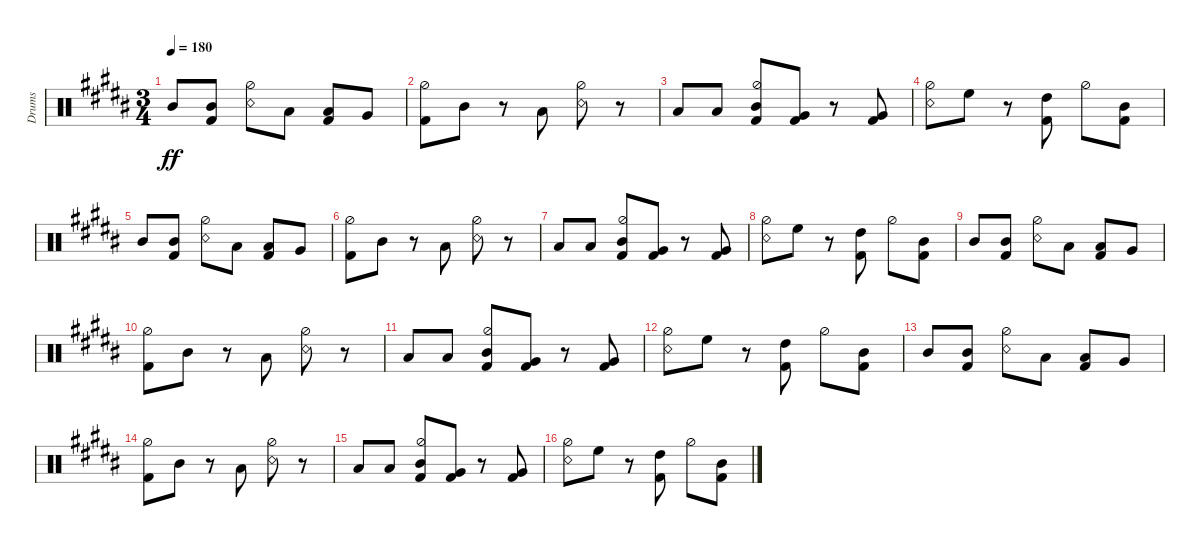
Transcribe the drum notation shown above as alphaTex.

\bracketExtendMode groupsimilarinstruments
\otherSystemsTrackNameOrientation horizontal
\track ("Drumkit" "Drums") {instrument percussion}
\staff {score}
\articulation defaults
\ts (3 4)
\tempo 180
\clef neutral
\ks b "Mid Tom (hit)"{acc bb}.8{dy ff beam Up}
("Kick (hit) 2"{acc bb} "Mid Tom (hit)"{acc bb}).8{beam Up} ("Snare (rim shot)"{acc bb} "Hi-Hat (half)"{acc bb}).8{beam Down} "Low Tom (hit)"{acc bb}.8{beam Down} ("Kick (hit) 2"{acc bb} "Low Tom (hit)"{acc bb}).8{beam Up} "Very Low Tom (hit)"{acc bb}.8{beam Up} |
("Kick (hit) 2"{acc bb} "Hi-Hat (half)"{acc bb}).8{beam Down} "Mid Tom (hit)"{acc bb}.8{beam Down} r.8{beam Down} "Low Tom (hit)"{acc bb}.8{beam Up} ("Snare (rim shot)"{acc bb} "Hi-Hat (half)"{acc bb}).8{beam Down} r.8{beam Down} |
"Low Tom (hit)"{acc bb}.8{beam Up} "Low Tom (hit)"{acc bb}.8{beam Up} ("Kick (hit) 2"{acc bb} "Hi-Hat (half)"{acc bb} "Mid Tom (hit)"{acc bb}).8{beam Up} ("Kick (hit) 2"{acc bb} "Very Low Tom (hit)"{acc bb}).8{beam Up} r.8{beam Up} ("Kick (hit) 2"{acc bb} "Very Low Tom (hit)"{acc bb}).8{beam Up} |
("Snare (rim shot)"{acc bb} "Hi-Hat (half)"{acc bb}).8{beam Down} "High Floor Tom (hit)"{acc bb}.8{beam Down} r.8{beam Down} ("Kick (hit) 2"{acc bb} "High Tom (hit)"{acc bb}).8{beam Up} "Hi-Hat (half)"{acc bb}.8{beam Down} ("Mid Tom (hit)"{acc bb} "Kick (hit) 2"{acc bb}).8{beam Down} |
"Mid Tom (hit)"{acc bb}.8{beam Up} ("Kick (hit) 2"{acc bb} "Mid Tom (hit)"{acc bb}).8{beam Up} ("Snare (rim shot)"{acc bb} "Hi-Hat (half)"{acc bb}).8{beam Down} "Low Tom (hit)"{acc bb}.8{beam Down} ("Kick (hit) 2"{acc bb} "Low Tom (hit)"{acc bb}).8{beam Up} "Very Low Tom (hit)"{acc bb}.8{beam Up} |
("Kick (hit) 2"{acc bb} "Hi-Hat (half)"{acc bb}).8{beam Down} "Mid Tom (hit)"{acc bb}.8{beam Down} r.8{beam Down} "Low Tom (hit)"{acc bb}.8{beam Up} ("Snare (rim shot)"{acc bb} "Hi-Hat (half)"{acc bb}).8{beam Down} r.8{beam Down} |
"Low Tom (hit)"{acc bb}.8{beam Up} "Low Tom (hit)"{acc bb}.8{beam Up} ("Kick (hit) 2"{acc bb} "Hi-Hat (half)"{acc bb} "Mid Tom (hit)"{acc bb}).8{beam Up} ("Kick (hit) 2"{acc bb} "Very Low Tom (hit)"{acc bb}).8{beam Up} r.8{beam Up} ("Kick (hit) 2"{acc bb} "Very Low Tom (hit)"{acc bb}).8{beam Up} |
("Snare (rim shot)"{acc bb} "Hi-Hat (half)"{acc bb}).8{beam Down} "High Floor Tom (hit)"{acc bb}.8{beam Down} r.8{beam Down} ("Kick (hit) 2"{acc bb} "High Tom (hit)"{acc bb}).8{beam Up} "Hi-Hat (half)"{acc bb}.8{beam Down} ("Mid Tom (hit)"{acc bb} "Kick (hit) 2"{acc bb}).8{beam Down} |
"Mid Tom (hit)"{acc bb}.8{beam Up} ("Kick (hit) 2"{acc bb} "Mid Tom (hit)"{acc bb}).8{beam Up} ("Snare (rim shot)"{acc bb} "Hi-Hat (half)"{acc bb}).8{beam Down} "Low Tom (hit)"{acc bb}.8{beam Down} ("Kick (hit) 2"{acc bb} "Low Tom (hit)"{acc bb}).8{beam Up} "Very Low Tom (hit)"{acc bb}.8{beam Up} |
("Kick (hit) 2"{acc bb} "Hi-Hat (half)"{acc bb}).8{beam Down} "Mid Tom (hit)"{acc bb}.8{beam Down} r.8{beam Down} "Low Tom (hit)"{acc bb}.8{beam Up} ("Snare (rim shot)"{acc bb} "Hi-Hat (half)"{acc bb}).8{beam Down} r.8{beam Down} |
"Low Tom (hit)"{acc bb}.8{beam Up} "Low Tom (hit)"{acc bb}.8{beam Up} ("Kick (hit) 2"{acc bb} "Hi-Hat (half)"{acc bb} "Mid Tom (hit)"{acc bb}).8{beam Up} ("Kick (hit) 2"{acc bb} "Very Low Tom (hit)"{acc bb}).8{beam Up} r.8{beam Up} ("Kick (hit) 2"{acc bb} "Very Low Tom (hit)"{acc bb}).8{beam Up} |
("Snare (rim shot)"{acc bb} "Hi-Hat (half)"{acc bb}).8{beam Down} "High Floor Tom (hit)"{acc bb}.8{beam Down} r.8{beam Down} ("Kick (hit) 2"{acc bb} "High Tom (hit)"{acc bb}).8{beam Up} "Hi-Hat (half)"{acc bb}.8{beam Down} ("Mid Tom (hit)"{acc bb} "Kick (hit) 2"{acc bb}).8{beam Down} |
"Mid Tom (hit)"{acc bb}.8{beam Up} ("Kick (hit) 2"{acc bb} "Mid Tom (hit)"{acc bb}).8{beam Up} ("Snare (rim shot)"{acc bb} "Hi-Hat (half)"{acc bb}).8{beam Down} "Low Tom (hit)"{acc bb}.8{beam Down} ("Kick (hit) 2"{acc bb} "Low Tom (hit)"{acc bb}).8{beam Up} "Very Low Tom (hit)"{acc bb}.8{beam Up} |
("Kick (hit) 2"{acc bb} "Hi-Hat (half)"{acc bb}).8{beam Down} "Mid Tom (hit)"{acc bb}.8{beam Down} r.8{beam Down} "Low Tom (hit)"{acc bb}.8{beam Up} ("Snare (rim shot)"{acc bb} "Hi-Hat (half)"{acc bb}).8{beam Down} r.8{beam Down} |
"Low Tom (hit)"{acc bb}.8{beam Up} "Low Tom (hit)"{acc bb}.8{beam Up} ("Kick (hit) 2"{acc bb} "Hi-Hat (half)"{acc bb} "Mid Tom (hit)"{acc bb}).8{beam Up} ("Kick (hit) 2"{acc bb} "Very Low Tom (hit)"{acc bb}).8{beam Up} r.8{beam Up} ("Kick (hit) 2"{acc bb} "Very Low Tom (hit)"{acc bb}).8{beam Up} |
("Snare (rim shot)"{acc bb} "Hi-Hat (half)"{acc bb}).8{beam Down} "High Floor Tom (hit)"{acc bb}.8{beam Down} r.8{beam Down} ("Kick (hit) 2"{acc bb} "High Tom (hit)"{acc bb}).8{beam Up} "Hi-Hat (half)"{acc bb}.8{beam Down} ("Mid Tom (hit)"{acc bb} "Kick (hit) 2"{acc bb}).8{beam Down}
